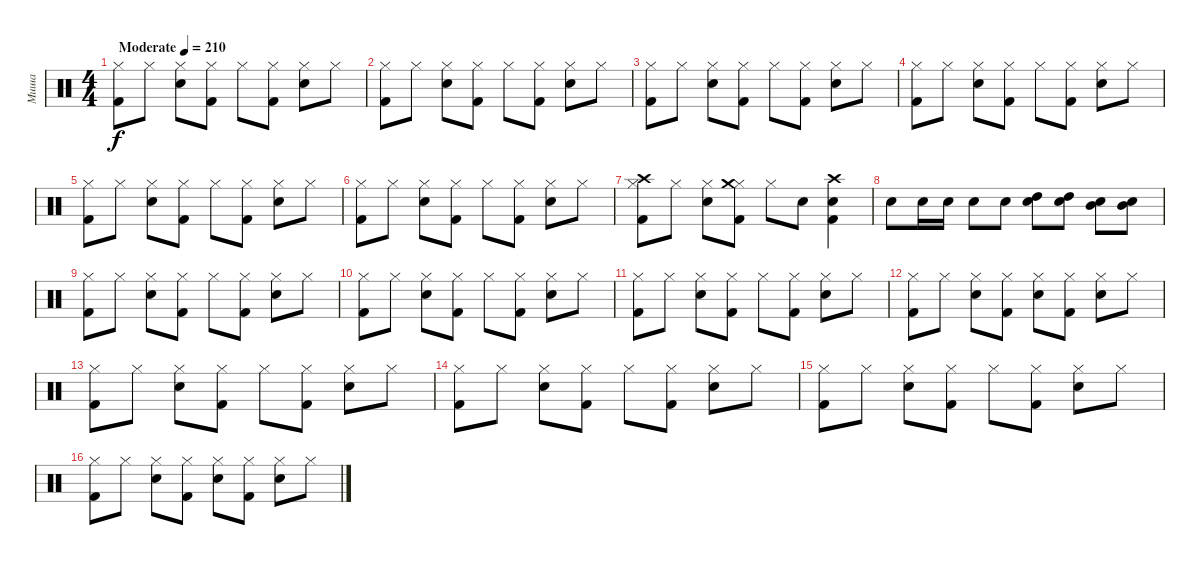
\track ("Миша" "Миша") {instrument percussion}
\staff {score}
\articulation defaults
\ts (4 4)
\tempo (210 "Moderate")
\clef neutral
\ks c
("Hi-Hat (closed)" "Kick (hit) 2").8{dy f} "Hi-Hat (closed)".8 ("Hi-Hat (closed)" "Snare (hit) 2").8 ("Hi-Hat (closed)" "Kick (hit) 2").8 "Hi-Hat (closed)".8 ("Hi-Hat (closed)" "Kick (hit) 2").8 ("Hi-Hat (closed)" "Snare (hit) 2").8 "Hi-Hat (closed)".8 |
("Hi-Hat (closed)" "Kick (hit) 2").8 "Hi-Hat (closed)".8 ("Hi-Hat (closed)" "Snare (hit) 2").8 ("Hi-Hat (closed)" "Kick (hit) 2").8 "Hi-Hat (closed)".8 ("Hi-Hat (closed)" "Kick (hit) 2").8 ("Hi-Hat (closed)" "Snare (hit) 2").8 "Hi-Hat (closed)".8 |
("Hi-Hat (closed)" "Kick (hit) 2").8 "Hi-Hat (closed)".8 ("Hi-Hat (closed)" "Snare (hit) 2").8 ("Hi-Hat (closed)" "Kick (hit) 2").8 "Hi-Hat (closed)".8 ("Hi-Hat (closed)" "Kick (hit) 2").8 ("Hi-Hat (closed)" "Snare (hit) 2").8 "Hi-Hat (closed)".8 |
("Hi-Hat (closed)" "Kick (hit) 2").8 "Hi-Hat (closed)".8 ("Hi-Hat (closed)" "Snare (hit) 2").8 ("Hi-Hat (closed)" "Kick (hit) 2").8 "Hi-Hat (closed)".8 ("Hi-Hat (closed)" "Kick (hit) 2").8 ("Hi-Hat (closed)" "Snare (hit) 2").8 "Hi-Hat (closed)".8 |
("Hi-Hat (closed)" "Kick (hit) 2").8 "Hi-Hat (closed)".8 ("Hi-Hat (closed)" "Snare (hit) 2").8 ("Hi-Hat (closed)" "Kick (hit) 2").8 "Hi-Hat (closed)".8 ("Hi-Hat (closed)" "Kick (hit) 2").8 ("Hi-Hat (closed)" "Snare (hit) 2").8 "Hi-Hat (closed)".8 |
("Hi-Hat (closed)" "Kick (hit) 2").8 "Hi-Hat (closed)".8 ("Hi-Hat (closed)" "Snare (hit) 2").8 ("Hi-Hat (closed)" "Kick (hit) 2").8 "Hi-Hat (closed)".8 ("Hi-Hat (closed)" "Kick (hit) 2").8 ("Hi-Hat (closed)" "Snare (hit) 2").8 "Hi-Hat (closed)".8 |
("Hi-Hat (closed)" "Kick (hit) 2" "Crash high (hit)").8 "Hi-Hat (closed)".8 ("Hi-Hat (closed)" "Snare (hit) 2").8 ("Hi-Hat (closed)" "Kick (hit) 2" "Crash medium (hit)").8 "Hi-Hat (closed)".8 "Snare (hit) 2".8 ("Kick (hit) 2" "Snare (hit) 2" "Crash high (hit)").4 |
"Snare (hit) 2".8 "Snare (hit) 2".16 "Snare (hit) 2".16 "Snare (hit) 2".8 "Snare (hit) 2".8 ("Snare (hit) 2" "High Tom (hit)").8 ("Snare (hit) 2" "High Tom (hit)").8 ("Snare (hit) 2" "Mid Tom (hit)").8 ("Snare (hit) 2" "Mid Tom (hit)").8 |
("Hi-Hat (closed)" "Kick (hit) 2").8 "Hi-Hat (closed)".8 ("Hi-Hat (closed)" "Snare (hit) 2").8 ("Hi-Hat (closed)" "Kick (hit) 2").8 "Hi-Hat (closed)".8 ("Hi-Hat (closed)" "Kick (hit) 2").8 ("Hi-Hat (closed)" "Snare (hit) 2").8 "Hi-Hat (closed)".8 |
("Hi-Hat (closed)" "Kick (hit) 2").8 "Hi-Hat (closed)".8 ("Hi-Hat (closed)" "Snare (hit) 2").8 ("Hi-Hat (closed)" "Kick (hit) 2").8 "Hi-Hat (closed)".8 ("Hi-Hat (closed)" "Kick (hit) 2").8 ("Hi-Hat (closed)" "Snare (hit) 2").8 "Hi-Hat (closed)".8 |
("Hi-Hat (closed)" "Kick (hit) 2").8 "Hi-Hat (closed)".8 ("Hi-Hat (closed)" "Snare (hit) 2").8 ("Hi-Hat (closed)" "Kick (hit) 2").8 "Hi-Hat (closed)".8 ("Hi-Hat (closed)" "Kick (hit) 2").8 ("Hi-Hat (closed)" "Snare (hit) 2").8 "Hi-Hat (closed)".8 |
("Hi-Hat (closed)" "Kick (hit) 2").8 "Hi-Hat (closed)".8 ("Hi-Hat (closed)" "Snare (hit) 2").8 ("Hi-Hat (closed)" "Kick (hit) 2").8 ("Hi-Hat (closed)" "Snare (hit) 2").8 ("Hi-Hat (closed)" "Kick (hit) 2").8 ("Hi-Hat (closed)" "Snare (hit) 2").8 "Hi-Hat (closed)".8 |
("Hi-Hat (closed)" "Kick (hit) 2").8 "Hi-Hat (closed)".8 ("Hi-Hat (closed)" "Snare (hit) 2").8 ("Hi-Hat (closed)" "Kick (hit) 2").8 "Hi-Hat (closed)".8 ("Hi-Hat (closed)" "Kick (hit) 2").8 ("Hi-Hat (closed)" "Snare (hit) 2").8 "Hi-Hat (closed)".8 |
("Hi-Hat (closed)" "Kick (hit) 2").8 "Hi-Hat (closed)".8 ("Hi-Hat (closed)" "Snare (hit) 2").8 ("Hi-Hat (closed)" "Kick (hit) 2").8 "Hi-Hat (closed)".8 ("Hi-Hat (closed)" "Kick (hit) 2").8 ("Hi-Hat (closed)" "Snare (hit) 2").8 "Hi-Hat (closed)".8 |
("Hi-Hat (closed)" "Kick (hit) 2").8 "Hi-Hat (closed)".8 ("Hi-Hat (closed)" "Snare (hit) 2").8 ("Hi-Hat (closed)" "Kick (hit) 2").8 "Hi-Hat (closed)".8 ("Hi-Hat (closed)" "Kick (hit) 2").8 ("Hi-Hat (closed)" "Snare (hit) 2").8 "Hi-Hat (closed)".8 |
("Hi-Hat (closed)" "Kick (hit) 2").8 "Hi-Hat (closed)".8 ("Hi-Hat (closed)" "Snare (hit) 2").8 ("Hi-Hat (closed)" "Kick (hit) 2").8 ("Hi-Hat (closed)" "Snare (hit) 2").8 ("Hi-Hat (closed)" "Kick (hit) 2").8 ("Hi-Hat (closed)" "Snare (hit) 2").8 "Hi-Hat (closed)".8
